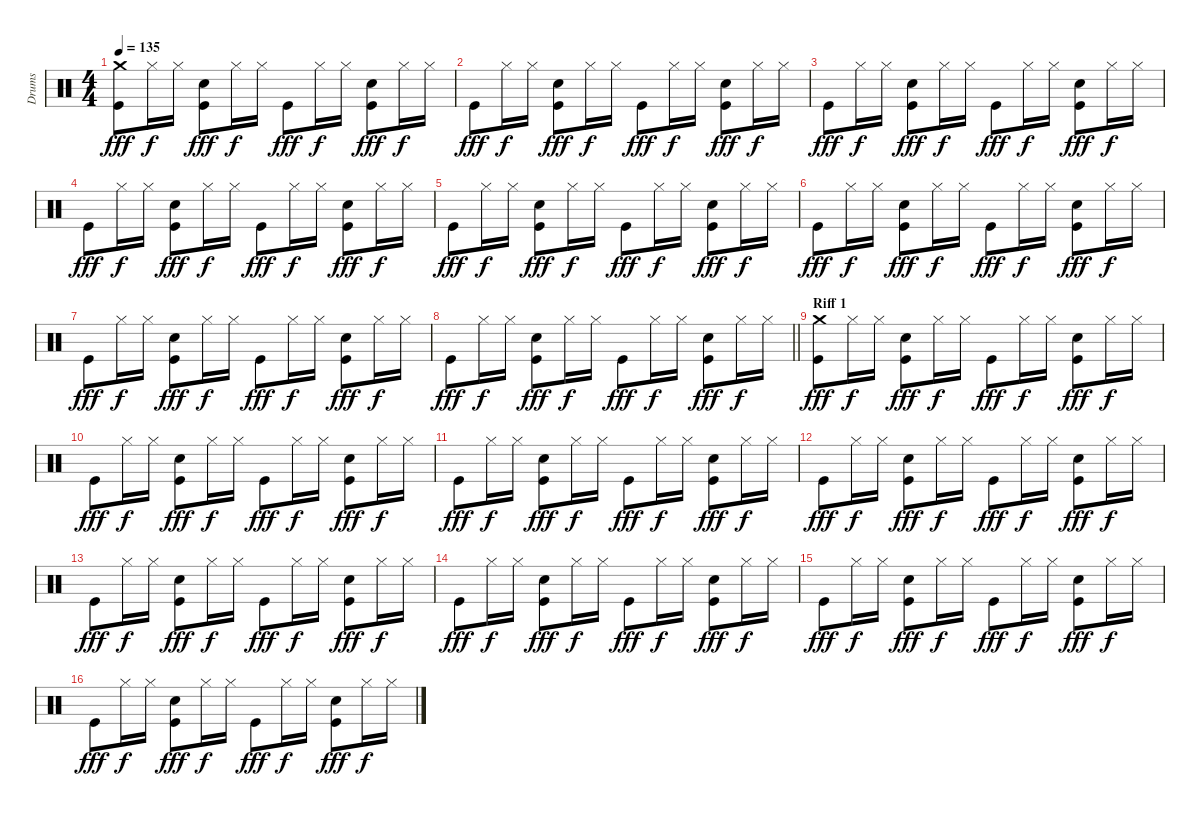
\track ("Drums" "Drums") {instrument percussion}
\staff {score}
\articulation defaults
\ts (4 4)
\tempo 135
\clef neutral
\ks c
("Kick (hit)" "Crash medium (hit)").8{dy fff} "Hi-Hat (closed)".16{dy f} "Hi-Hat (closed)".16 ("Kick (hit)" "Snare (hit) 2").8{dy fff} "Hi-Hat (closed)".16{dy f} "Hi-Hat (closed)".16 "Kick (hit)".8{dy fff} "Hi-Hat (closed)".16{dy f} "Hi-Hat (closed)".16 ("Kick (hit)" "Snare (hit) 2").8{dy fff} "Hi-Hat (closed)".16{dy f} "Hi-Hat (closed)".16 |
"Kick (hit)".8{dy fff} "Hi-Hat (closed)".16{dy f} "Hi-Hat (closed)".16 ("Kick (hit)" "Snare (hit) 2").8{dy fff} "Hi-Hat (closed)".16{dy f} "Hi-Hat (closed)".16 "Kick (hit)".8{dy fff} "Hi-Hat (closed)".16{dy f} "Hi-Hat (closed)".16 ("Kick (hit)" "Snare (hit) 2").8{dy fff} "Hi-Hat (closed)".16{dy f} "Hi-Hat (closed)".16 |
"Kick (hit)".8{dy fff} "Hi-Hat (closed)".16{dy f} "Hi-Hat (closed)".16 ("Kick (hit)" "Snare (hit) 2").8{dy fff} "Hi-Hat (closed)".16{dy f} "Hi-Hat (closed)".16 "Kick (hit)".8{dy fff} "Hi-Hat (closed)".16{dy f} "Hi-Hat (closed)".16 ("Kick (hit)" "Snare (hit) 2").8{dy fff} "Hi-Hat (closed)".16{dy f} "Hi-Hat (closed)".16 |
"Kick (hit)".8{dy fff} "Hi-Hat (closed)".16{dy f} "Hi-Hat (closed)".16 ("Kick (hit)" "Snare (hit) 2").8{dy fff} "Hi-Hat (closed)".16{dy f} "Hi-Hat (closed)".16 "Kick (hit)".8{dy fff} "Hi-Hat (closed)".16{dy f} "Hi-Hat (closed)".16 ("Kick (hit)" "Snare (hit) 2").8{dy fff} "Hi-Hat (closed)".16{dy f} "Hi-Hat (closed)".16 |
"Kick (hit)".8{dy fff} "Hi-Hat (closed)".16{dy f} "Hi-Hat (closed)".16 ("Kick (hit)" "Snare (hit) 2").8{dy fff} "Hi-Hat (closed)".16{dy f} "Hi-Hat (closed)".16 "Kick (hit)".8{dy fff} "Hi-Hat (closed)".16{dy f} "Hi-Hat (closed)".16 ("Kick (hit)" "Snare (hit) 2").8{dy fff} "Hi-Hat (closed)".16{dy f} "Hi-Hat (closed)".16 |
"Kick (hit)".8{dy fff} "Hi-Hat (closed)".16{dy f} "Hi-Hat (closed)".16 ("Kick (hit)" "Snare (hit) 2").8{dy fff} "Hi-Hat (closed)".16{dy f} "Hi-Hat (closed)".16 "Kick (hit)".8{dy fff} "Hi-Hat (closed)".16{dy f} "Hi-Hat (closed)".16 ("Kick (hit)" "Snare (hit) 2").8{dy fff} "Hi-Hat (closed)".16{dy f} "Hi-Hat (closed)".16 |
"Kick (hit)".8{dy fff} "Hi-Hat (closed)".16{dy f} "Hi-Hat (closed)".16 ("Kick (hit)" "Snare (hit) 2").8{dy fff} "Hi-Hat (closed)".16{dy f} "Hi-Hat (closed)".16 "Kick (hit)".8{dy fff} "Hi-Hat (closed)".16{dy f} "Hi-Hat (closed)".16 ("Kick (hit)" "Snare (hit) 2").8{dy fff} "Hi-Hat (closed)".16{dy f} "Hi-Hat (closed)".16 |
\barLineRight lightlight "Kick (hit)".8{dy fff} "Hi-Hat (closed)".16{dy f} "Hi-Hat (closed)".16
("Kick (hit)" "Snare (hit) 2").8{dy fff} "Hi-Hat (closed)".16{dy f} "Hi-Hat (closed)".16 "Kick (hit)".8{dy fff} "Hi-Hat (closed)".16{dy f} "Hi-Hat (closed)".16 ("Kick (hit)" "Snare (hit) 2").8{dy fff} "Hi-Hat (closed)".16{dy f} "Hi-Hat (closed)".16 |
\section ("" "Riff 1")
("Kick (hit)" "Crash medium (hit)").8{dy fff} "Hi-Hat (closed)".16{dy f} "Hi-Hat (closed)".16 ("Kick (hit)" "Snare (hit) 2").8{dy fff} "Hi-Hat (closed)".16{dy f} "Hi-Hat (closed)".16 "Kick (hit)".8{dy fff} "Hi-Hat (closed)".16{dy f} "Hi-Hat (closed)".16 ("Kick (hit)" "Snare (hit) 2").8{dy fff} "Hi-Hat (closed)".16{dy f} "Hi-Hat (closed)".16 |
"Kick (hit)".8{dy fff} "Hi-Hat (closed)".16{dy f} "Hi-Hat (closed)".16 ("Kick (hit)" "Snare (hit) 2").8{dy fff} "Hi-Hat (closed)".16{dy f} "Hi-Hat (closed)".16 "Kick (hit)".8{dy fff} "Hi-Hat (closed)".16{dy f} "Hi-Hat (closed)".16 ("Kick (hit)" "Snare (hit) 2").8{dy fff} "Hi-Hat (closed)".16{dy f} "Hi-Hat (closed)".16 |
"Kick (hit)".8{dy fff} "Hi-Hat (closed)".16{dy f} "Hi-Hat (closed)".16 ("Kick (hit)" "Snare (hit) 2").8{dy fff} "Hi-Hat (closed)".16{dy f} "Hi-Hat (closed)".16 "Kick (hit)".8{dy fff} "Hi-Hat (closed)".16{dy f} "Hi-Hat (closed)".16 ("Kick (hit)" "Snare (hit) 2").8{dy fff} "Hi-Hat (closed)".16{dy f} "Hi-Hat (closed)".16 |
"Kick (hit)".8{dy fff} "Hi-Hat (closed)".16{dy f} "Hi-Hat (closed)".16 ("Kick (hit)" "Snare (hit) 2").8{dy fff} "Hi-Hat (closed)".16{dy f} "Hi-Hat (closed)".16 "Kick (hit)".8{dy fff} "Hi-Hat (closed)".16{dy f} "Hi-Hat (closed)".16 ("Kick (hit)" "Snare (hit) 2").8{dy fff} "Hi-Hat (closed)".16{dy f} "Hi-Hat (closed)".16 |
"Kick (hit)".8{dy fff} "Hi-Hat (closed)".16{dy f} "Hi-Hat (closed)".16 ("Kick (hit)" "Snare (hit) 2").8{dy fff} "Hi-Hat (closed)".16{dy f} "Hi-Hat (closed)".16 "Kick (hit)".8{dy fff} "Hi-Hat (closed)".16{dy f} "Hi-Hat (closed)".16 ("Kick (hit)" "Snare (hit) 2").8{dy fff} "Hi-Hat (closed)".16{dy f} "Hi-Hat (closed)".16 |
"Kick (hit)".8{dy fff} "Hi-Hat (closed)".16{dy f} "Hi-Hat (closed)".16 ("Kick (hit)" "Snare (hit) 2").8{dy fff} "Hi-Hat (closed)".16{dy f} "Hi-Hat (closed)".16 "Kick (hit)".8{dy fff} "Hi-Hat (closed)".16{dy f} "Hi-Hat (closed)".16 ("Kick (hit)" "Snare (hit) 2").8{dy fff} "Hi-Hat (closed)".16{dy f} "Hi-Hat (closed)".16 |
"Kick (hit)".8{dy fff} "Hi-Hat (closed)".16{dy f} "Hi-Hat (closed)".16 ("Kick (hit)" "Snare (hit) 2").8{dy fff} "Hi-Hat (closed)".16{dy f} "Hi-Hat (closed)".16 "Kick (hit)".8{dy fff} "Hi-Hat (closed)".16{dy f} "Hi-Hat (closed)".16 ("Kick (hit)" "Snare (hit) 2").8{dy fff} "Hi-Hat (closed)".16{dy f} "Hi-Hat (closed)".16 |
"Kick (hit)".8{dy fff} "Hi-Hat (closed)".16{dy f} "Hi-Hat (closed)".16 ("Kick (hit)" "Snare (hit) 2").8{dy fff} "Hi-Hat (closed)".16{dy f} "Hi-Hat (closed)".16 "Kick (hit)".8{dy fff} "Hi-Hat (closed)".16{dy f} "Hi-Hat (closed)".16 ("Kick (hit)" "Snare (hit) 2").8{dy fff} "Hi-Hat (closed)".16{dy f} "Hi-Hat (closed)".16
